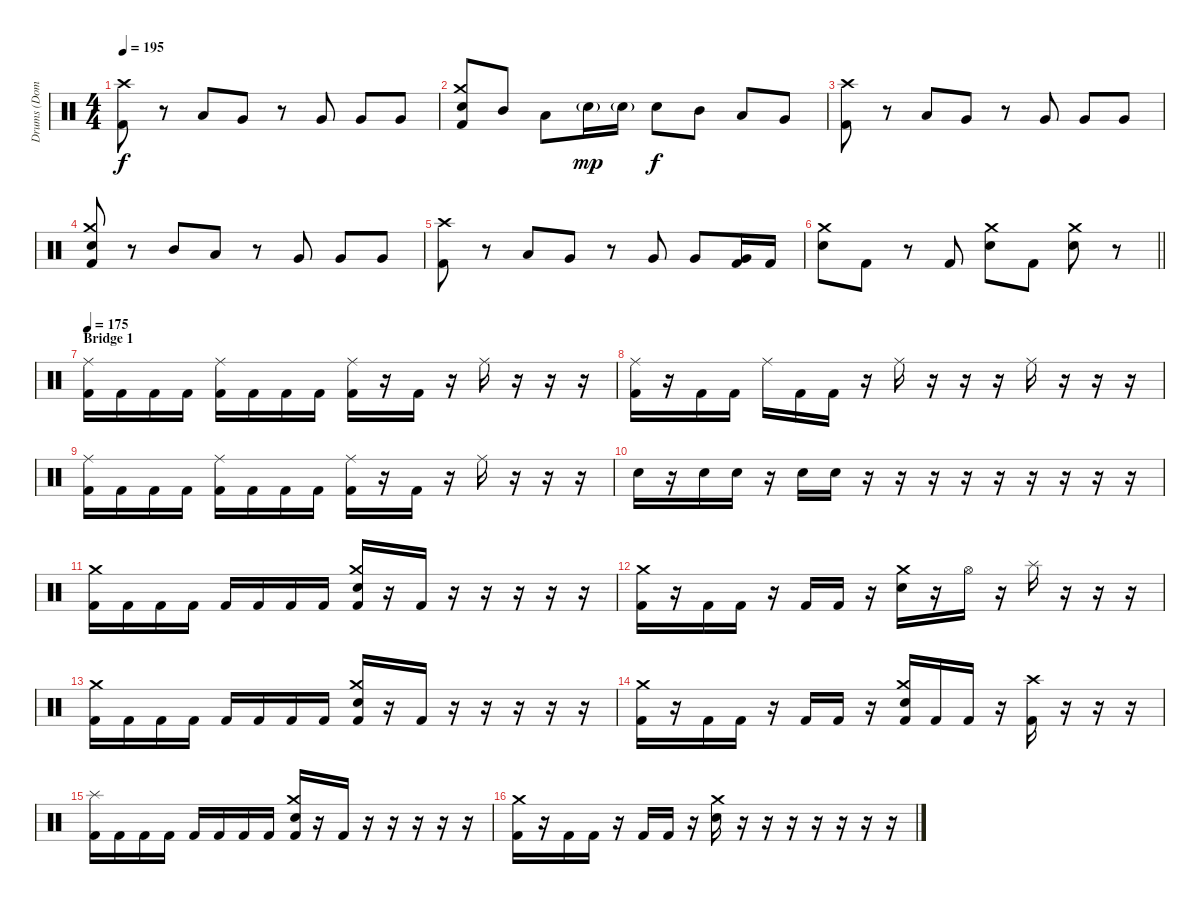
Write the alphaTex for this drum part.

\track ("Drums (Dominik)" "Drums (Dom") {instrument percussion}
\staff {score}
\articulation defaults
\ts (4 4)
\tempo 195
\clef neutral
\ks c
("Crash high (hit)" "Kick (hit) 2").8{dy f} r.8 "Low Tom (hit)".8 "Very Low Tom (hit)".8 r.8 "Very Low Tom (hit)".8 "Very Low Tom (hit)".8 "Very Low Tom (hit)".8 |
("Crash medium (hit)" "Electric Snare (hit)" "Kick (hit) 2").8 "Mid Tom (hit)".8 "Low Tom (hit)".8 "Electric Snare (hit)"{g}.16{dy mp} "Electric Snare (hit)"{g}.16 "Electric Snare (hit)".8{dy f} "Mid Tom (hit)".8 "Low Tom (hit)".8 "Very Low Tom (hit)".8 |
("Crash high (hit)" "Kick (hit) 2").8 r.8 "Low Tom (hit)".8 "Very Low Tom (hit)".8 r.8 "Very Low Tom (hit)".8 "Very Low Tom (hit)".8 "Very Low Tom (hit)".8 |
("Crash medium (hit)" "Electric Snare (hit)" "Kick (hit) 2").8 r.8 "Mid Tom (hit)".8 "Low Tom (hit)".8 r.8 "Very Low Tom (hit)".8 "Very Low Tom (hit)".8 "Very Low Tom (hit)".8 |
("Crash high (hit)" "Kick (hit) 2").8 r.8 "Low Tom (hit)".8 "Very Low Tom (hit)".8 r.8 "Very Low Tom (hit)".8 "Very Low Tom (hit)".8 ("Very Low Tom (hit)" "Kick (hit) 2").16 "Kick (hit) 2".16 |
\barLineRight lightlight
("Crash medium (hit)" "Electric Snare (hit)").8 "Kick (hit) 2".8 r.8 "Kick (hit) 2".8 ("Crash medium (hit)" "Electric Snare (hit)").8 "Kick (hit) 2".8 ("Crash medium (hit)" "Electric Snare (hit)").8 r.8 |
\section ("" "Bridge 1")
\tempo 175
("Ride (middle)" "Kick (hit) 2").16 "Kick (hit) 2".16 "Kick (hit) 2".16 "Kick (hit) 2".16 ("Ride (middle)" "Kick (hit) 2").16 "Kick (hit) 2".16 "Kick (hit) 2".16 "Kick (hit) 2".16 ("Ride (middle)" "Kick (hit) 2").16 r.16 "Kick (hit) 2".16 r.16 "Ride (middle)".16 r.16 r.16 r.16 |
("Ride (middle)" "Kick (hit) 2").16 r.16 "Kick (hit) 2".16 "Kick (hit) 2".16 "Ride (middle)".16 "Kick (hit) 2".16 "Kick (hit) 2".16 r.16 "Ride (middle)".16 r.16 r.16 r.16 "Ride (middle)".16 r.16 r.16 r.16 |
("Ride (middle)" "Kick (hit) 2").16 "Kick (hit) 2".16 "Kick (hit) 2".16 "Kick (hit) 2".16 ("Ride (middle)" "Kick (hit) 2").16 "Kick (hit) 2".16 "Kick (hit) 2".16 "Kick (hit) 2".16 ("Ride (middle)" "Kick (hit) 2").16 r.16 "Kick (hit) 2".16 r.16 "Ride (middle)".16 r.16 r.16 r.16 |
"Electric Snare (hit)".16 r.16 "Electric Snare (hit)".16 "Electric Snare (hit)".16 r.16 "Electric Snare (hit)".16 "Electric Snare (hit)".16 r.16 r.16 r.16 r.16 r.16 r.16 r.16 r.16 r.16 |
("Crash medium (hit)" "Kick (hit) 2").16 "Kick (hit) 2".16 "Kick (hit) 2".16 "Kick (hit) 2".16 "Kick (hit) 2".16 "Kick (hit) 2".16 "Kick (hit) 2".16 "Kick (hit) 2".16 ("Crash medium (hit)" "Electric Snare (hit)" "Kick (hit) 2").16 r.16 "Kick (hit) 2".16 r.16 r.16 r.16 r.16 r.16 |
("Crash medium (hit)" "Kick (hit) 2").16 r.16 "Kick (hit) 2".16 "Kick (hit) 2".16 r.16 "Kick (hit) 2".16 "Kick (hit) 2".16 r.16 ("Crash medium (hit)" "Electric Snare (hit)").16 r.16 "Hi-Hat (open)".16 r.16 "Splash (hit)".16 r.16 r.16 r.16 |
("Crash medium (hit)" "Kick (hit) 2").16 "Kick (hit) 2".16 "Kick (hit) 2".16 "Kick (hit) 2".16 "Kick (hit) 2".16 "Kick (hit) 2".16 "Kick (hit) 2".16 "Kick (hit) 2".16 ("Crash medium (hit)" "Electric Snare (hit)" "Kick (hit) 2").16 r.16 "Kick (hit) 2".16 r.16 r.16 r.16 r.16 r.16 |
("Crash medium (hit)" "Kick (hit) 2").16 r.16 "Kick (hit) 2".16 "Kick (hit) 2".16 r.16 "Kick (hit) 2".16 "Kick (hit) 2".16 r.16 ("Crash medium (hit)" "Electric Snare (hit)" "Kick (hit) 2").16 "Kick (hit) 2".16 "Kick (hit) 2".16 r.16 ("Crash high (hit)" "Kick (hit) 2").16 r.16 r.16 r.16 |
("Splash (hit)" "Kick (hit) 2").16 "Kick (hit) 2".16 "Kick (hit) 2".16 "Kick (hit) 2".16 "Kick (hit) 2".16 "Kick (hit) 2".16 "Kick (hit) 2".16 "Kick (hit) 2".16 ("Crash medium (hit)" "Electric Snare (hit)" "Kick (hit) 2").16 r.16 "Kick (hit) 2".16 r.16 r.16 r.16 r.16 r.16 |
("Crash medium (hit)" "Kick (hit) 2").16 r.16 "Kick (hit) 2".16 "Kick (hit) 2".16 r.16 "Kick (hit) 2".16 "Kick (hit) 2".16 r.16 ("Crash medium (hit)" "Electric Snare (hit)").16 r.16 r.16 r.16 r.16 r.16 r.16 r.16
